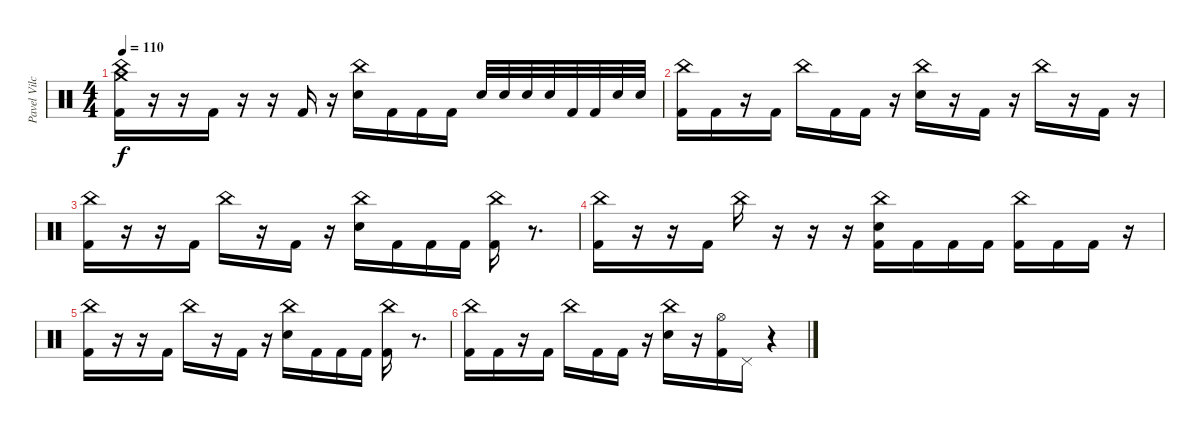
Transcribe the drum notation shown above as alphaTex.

\track ("Pavel Vilchytski" "Pavel Vilc") {instrument percussion}
\staff {score}
\articulation defaults
\ts (4 4)
\tempo 110
\clef neutral
\ks c
("China (hit)" "Crash medium (hit)" "Kick (hit) 2").16{dy f} r.16 r.16 "Kick (hit) 2".16 r.16 r.16 "Kick (hit) 2".16 r.16 ("China (hit)" "Electric Snare (hit)").16 "Kick (hit) 2".16 "Kick (hit) 2".16 "Kick (hit) 2".16 "Electric Snare (hit)".32 "Electric Snare (hit)".32 "Electric Snare (hit)".32 "Electric Snare (hit)".32 "Kick (hit) 2".32 "Kick (hit) 2".32 "Electric Snare (hit)".32 "Electric Snare (hit)".32 |
("China (hit)" "Kick (hit) 2").16 "Kick (hit) 2".16 r.16 "Kick (hit) 2".16 "China (hit)".16 "Kick (hit) 2".16 "Kick (hit) 2".16 r.16 ("China (hit)" "Electric Snare (hit)").16 r.16 "Kick (hit) 2".16 r.16 "China (hit)".16 r.16 "Kick (hit) 2".16 r.16 |
("China (hit)" "Kick (hit) 2").16 r.16 r.16 "Kick (hit) 2".16 "China (hit)".16 r.16 "Kick (hit) 2".16 r.16 ("China (hit)" "Electric Snare (hit)").16 "Kick (hit) 2".16 "Kick (hit) 2".16 "Kick (hit) 2".16 ("China (hit)" "Kick (hit) 2").16 r.8{d} |
("China (hit)" "Kick (hit) 2").16 r.16 r.16 "Kick (hit) 2".16 "China (hit)".16 r.16 r.16 r.16 ("China (hit)" "Electric Snare (hit)" "Kick (hit) 2").16 "Kick (hit) 2".16 "Kick (hit) 2".16 "Kick (hit) 2".16 ("China (hit)" "Kick (hit) 2").16 "Kick (hit) 2".16 "Kick (hit) 2".16 r.16 |
("China (hit)" "Kick (hit) 2").16 r.16 r.16 "Kick (hit) 2".16 "China (hit)".16 r.16 "Kick (hit) 2".16 r.16 ("China (hit)" "Electric Snare (hit)").16 "Kick (hit) 2".16 "Kick (hit) 2".16 "Kick (hit) 2".16 ("China (hit)" "Kick (hit) 2").16 r.8{d} |
("China (hit)" "Kick (hit) 2").16 "Kick (hit) 2".16 r.16 "Kick (hit) 2".16 "China (hit)".16 "Kick (hit) 2".16 "Kick (hit) 2".16 r.16 ("China (hit)" "Electric Snare (hit)").16 r.16 ("Hi-Hat (open)" "Kick (hit) 2").16 "Pedal Hi-Hat (hit)".16 r.4
